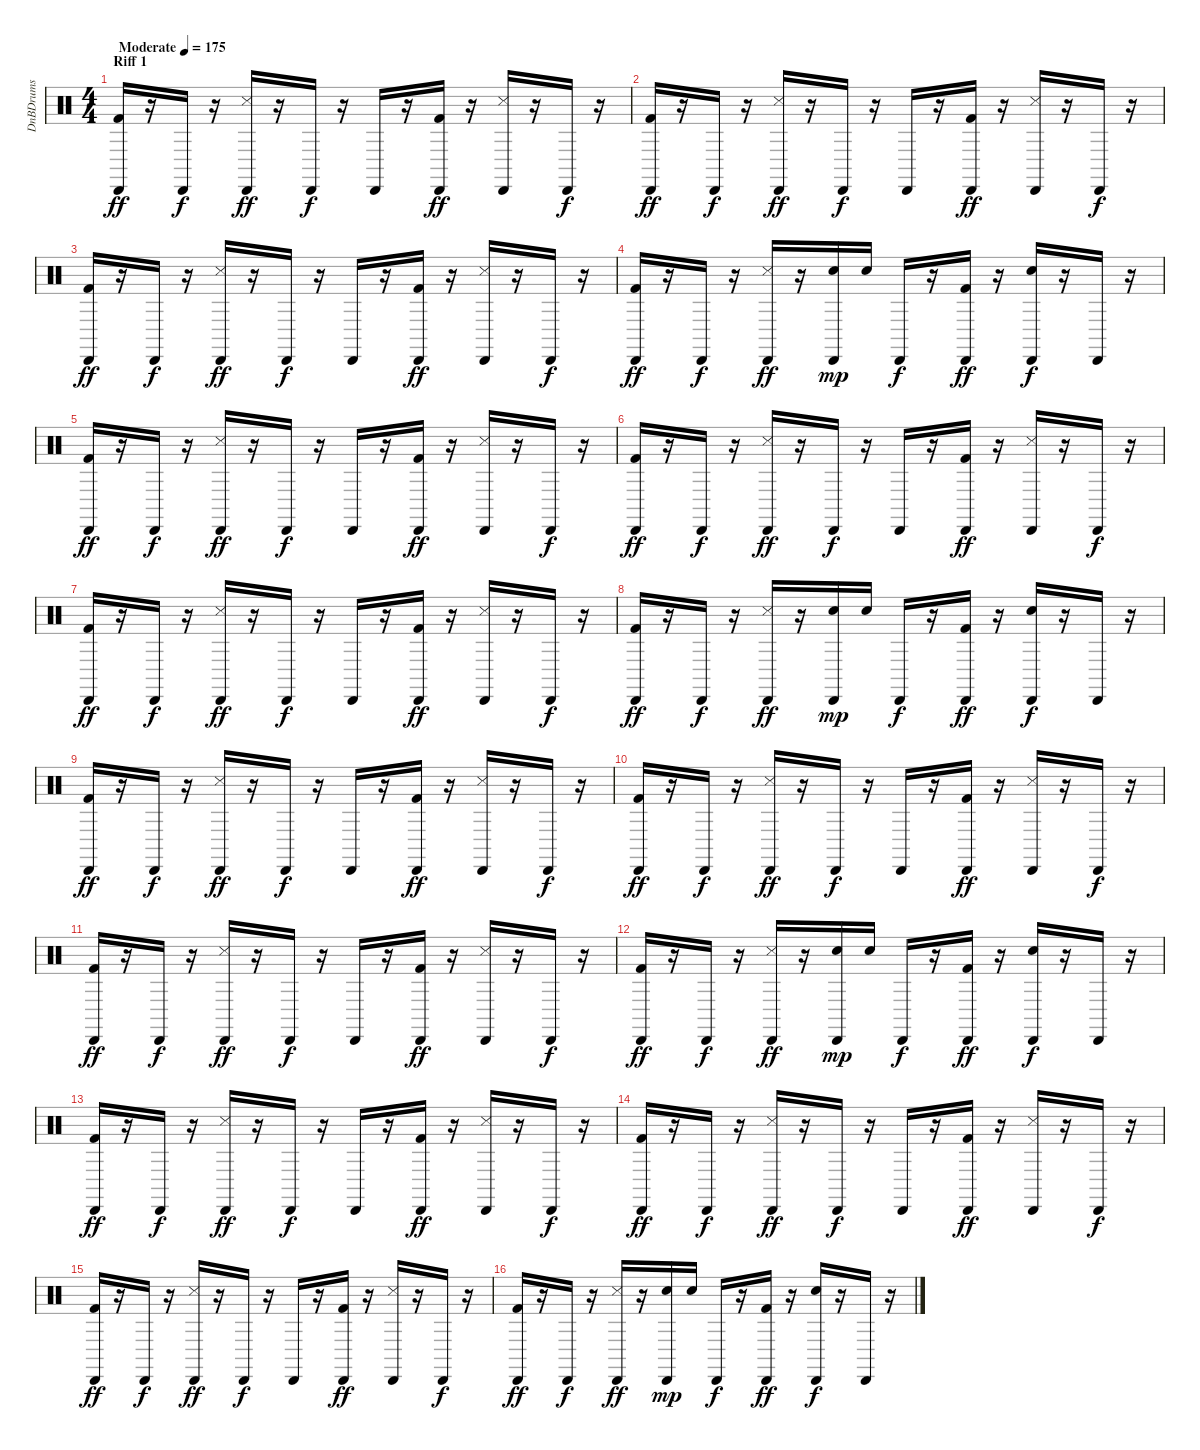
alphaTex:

\track ("DnBDrums" "DnBDrums") {instrument percussion}
\staff {score}
\articulation defaults
\ts (4 4)
\section ("" "Riff 1")
\tempo (175 "Moderate")
\clef neutral
\ks c
("Kick (hit) 2" "Cabasa (hit)").16{dy ff} r.16 "Cabasa (hit)".16{dy f} r.16 ("Snare (side stick) 3" "Cabasa (hit)").16{dy ff} r.16 "Cabasa (hit)".16{dy f} r.16 "Cabasa (hit)".16 r.16 ("Kick (hit) 2" "Cabasa (hit)").16{dy ff} r.16 ("Snare (side stick) 3" "Cabasa (hit)").16 r.16 "Cabasa (hit)".16{dy f} r.16 |
("Kick (hit) 2" "Cabasa (hit)").16{dy ff} r.16 "Cabasa (hit)".16{dy f} r.16 ("Snare (side stick) 3" "Cabasa (hit)").16{dy ff} r.16 "Cabasa (hit)".16{dy f} r.16 "Cabasa (hit)".16 r.16 ("Kick (hit) 2" "Cabasa (hit)").16{dy ff} r.16 ("Snare (side stick) 3" "Cabasa (hit)").16 r.16 "Cabasa (hit)".16{dy f} r.16 |
("Kick (hit) 2" "Cabasa (hit)").16{dy ff} r.16 "Cabasa (hit)".16{dy f} r.16 ("Snare (side stick) 3" "Cabasa (hit)").16{dy ff} r.16 "Cabasa (hit)".16{dy f} r.16 "Cabasa (hit)".16 r.16 ("Kick (hit) 2" "Cabasa (hit)").16{dy ff} r.16 ("Snare (side stick) 3" "Cabasa (hit)").16 r.16 "Cabasa (hit)".16{dy f} r.16 |
("Kick (hit) 2" "Cabasa (hit)").16{dy ff} r.16 "Cabasa (hit)".16{dy f} r.16 ("Snare (side stick) 3" "Cabasa (hit)").16{dy ff} r.16 ("Electric Snare (hit)" "Cabasa (hit)").16{dy mp} "Electric Snare (hit)".16 "Cabasa (hit)".16{dy f} r.16 ("Kick (hit) 2" "Cabasa (hit)").16{dy ff} r.16 ("Electric Snare (hit)" "Cabasa (hit)").16{dy f} r.16 "Cabasa (hit)".16 r.16 |
("Kick (hit) 2" "Cabasa (hit)").16{dy ff} r.16 "Cabasa (hit)".16{dy f} r.16 ("Snare (side stick) 3" "Cabasa (hit)").16{dy ff} r.16 "Cabasa (hit)".16{dy f} r.16 "Cabasa (hit)".16 r.16 ("Kick (hit) 2" "Cabasa (hit)").16{dy ff} r.16 ("Snare (side stick) 3" "Cabasa (hit)").16 r.16 "Cabasa (hit)".16{dy f} r.16 |
("Kick (hit) 2" "Cabasa (hit)").16{dy ff} r.16 "Cabasa (hit)".16{dy f} r.16 ("Snare (side stick) 3" "Cabasa (hit)").16{dy ff} r.16 "Cabasa (hit)".16{dy f} r.16 "Cabasa (hit)".16 r.16 ("Kick (hit) 2" "Cabasa (hit)").16{dy ff} r.16 ("Snare (side stick) 3" "Cabasa (hit)").16 r.16 "Cabasa (hit)".16{dy f} r.16 |
("Kick (hit) 2" "Cabasa (hit)").16{dy ff} r.16 "Cabasa (hit)".16{dy f} r.16 ("Snare (side stick) 3" "Cabasa (hit)").16{dy ff} r.16 "Cabasa (hit)".16{dy f} r.16 "Cabasa (hit)".16 r.16 ("Kick (hit) 2" "Cabasa (hit)").16{dy ff} r.16 ("Snare (side stick) 3" "Cabasa (hit)").16 r.16 "Cabasa (hit)".16{dy f} r.16 |
("Kick (hit) 2" "Cabasa (hit)").16{dy ff} r.16 "Cabasa (hit)".16{dy f} r.16 ("Snare (side stick) 3" "Cabasa (hit)").16{dy ff} r.16 ("Electric Snare (hit)" "Cabasa (hit)").16{dy mp} "Electric Snare (hit)".16 "Cabasa (hit)".16{dy f} r.16 ("Kick (hit) 2" "Cabasa (hit)").16{dy ff} r.16 ("Electric Snare (hit)" "Cabasa (hit)").16{dy f} r.16 "Cabasa (hit)".16 r.16 |
("Kick (hit) 2" "Cabasa (hit)").16{dy ff} r.16 "Cabasa (hit)".16{dy f} r.16 ("Snare (side stick) 3" "Cabasa (hit)").16{dy ff} r.16 "Cabasa (hit)".16{dy f} r.16 "Cabasa (hit)".16 r.16 ("Kick (hit) 2" "Cabasa (hit)").16{dy ff} r.16 ("Snare (side stick) 3" "Cabasa (hit)").16 r.16 "Cabasa (hit)".16{dy f} r.16 |
("Kick (hit) 2" "Cabasa (hit)").16{dy ff} r.16 "Cabasa (hit)".16{dy f} r.16 ("Snare (side stick) 3" "Cabasa (hit)").16{dy ff} r.16 "Cabasa (hit)".16{dy f} r.16 "Cabasa (hit)".16 r.16 ("Kick (hit) 2" "Cabasa (hit)").16{dy ff} r.16 ("Snare (side stick) 3" "Cabasa (hit)").16 r.16 "Cabasa (hit)".16{dy f} r.16 |
("Kick (hit) 2" "Cabasa (hit)").16{dy ff} r.16 "Cabasa (hit)".16{dy f} r.16 ("Snare (side stick) 3" "Cabasa (hit)").16{dy ff} r.16 "Cabasa (hit)".16{dy f} r.16 "Cabasa (hit)".16 r.16 ("Kick (hit) 2" "Cabasa (hit)").16{dy ff} r.16 ("Snare (side stick) 3" "Cabasa (hit)").16 r.16 "Cabasa (hit)".16{dy f} r.16 |
("Kick (hit) 2" "Cabasa (hit)").16{dy ff} r.16 "Cabasa (hit)".16{dy f} r.16 ("Snare (side stick) 3" "Cabasa (hit)").16{dy ff} r.16 ("Electric Snare (hit)" "Cabasa (hit)").16{dy mp} "Electric Snare (hit)".16 "Cabasa (hit)".16{dy f} r.16 ("Kick (hit) 2" "Cabasa (hit)").16{dy ff} r.16 ("Electric Snare (hit)" "Cabasa (hit)").16{dy f} r.16 "Cabasa (hit)".16 r.16 |
("Kick (hit) 2" "Cabasa (hit)").16{dy ff} r.16 "Cabasa (hit)".16{dy f} r.16 ("Snare (side stick) 3" "Cabasa (hit)").16{dy ff} r.16 "Cabasa (hit)".16{dy f} r.16 "Cabasa (hit)".16 r.16 ("Kick (hit) 2" "Cabasa (hit)").16{dy ff} r.16 ("Snare (side stick) 3" "Cabasa (hit)").16 r.16 "Cabasa (hit)".16{dy f} r.16 |
("Kick (hit) 2" "Cabasa (hit)").16{dy ff} r.16 "Cabasa (hit)".16{dy f} r.16 ("Snare (side stick) 3" "Cabasa (hit)").16{dy ff} r.16 "Cabasa (hit)".16{dy f} r.16 "Cabasa (hit)".16 r.16 ("Kick (hit) 2" "Cabasa (hit)").16{dy ff} r.16 ("Snare (side stick) 3" "Cabasa (hit)").16 r.16 "Cabasa (hit)".16{dy f} r.16 |
("Kick (hit) 2" "Cabasa (hit)").16{dy ff} r.16 "Cabasa (hit)".16{dy f} r.16 ("Snare (side stick) 3" "Cabasa (hit)").16{dy ff} r.16 "Cabasa (hit)".16{dy f} r.16 "Cabasa (hit)".16 r.16 ("Kick (hit) 2" "Cabasa (hit)").16{dy ff} r.16 ("Snare (side stick) 3" "Cabasa (hit)").16 r.16 "Cabasa (hit)".16{dy f} r.16 |
("Kick (hit) 2" "Cabasa (hit)").16{dy ff} r.16 "Cabasa (hit)".16{dy f} r.16 ("Snare (side stick) 3" "Cabasa (hit)").16{dy ff} r.16 ("Electric Snare (hit)" "Cabasa (hit)").16{dy mp} "Electric Snare (hit)".16 "Cabasa (hit)".16{dy f} r.16 ("Kick (hit) 2" "Cabasa (hit)").16{dy ff} r.16 ("Electric Snare (hit)" "Cabasa (hit)").16{dy f} r.16 "Cabasa (hit)".16 r.16
